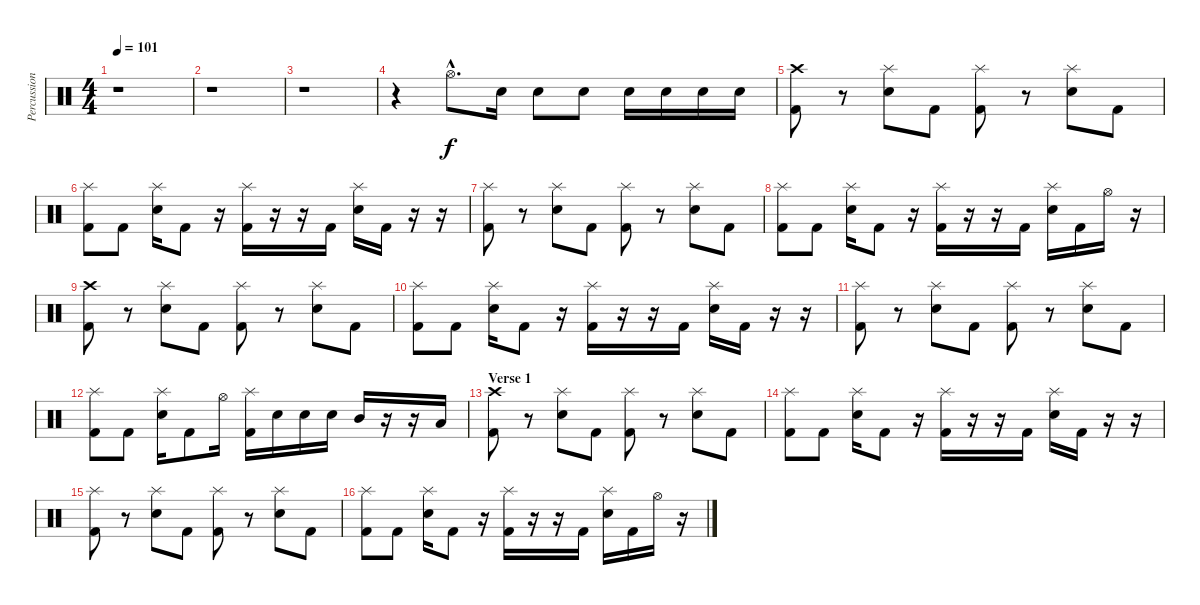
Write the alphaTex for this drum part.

\track ("Percussion" "Percussion") {instrument percussion}
\staff {score}
\articulation defaults
\ts (4 4)
\tempo 101
\clef neutral
\ks c
r.1{dy f} |
r.1 |
r.1 |
r.4 "Hi-Hat (open)"{hac}.8{d} "Electric Snare (hit)".16 "Electric Snare (hit)".8 "Electric Snare (hit)".8 "Electric Snare (hit)".16 "Electric Snare (hit)".16 "Electric Snare (hit)".16 "Electric Snare (hit)".16 |
("Crash high (hit)" "Kick (hit) 2").8 r.8 ("Splash (hit)" "Electric Snare (hit)").8 "Kick (hit) 2".8 ("Splash (hit)" "Kick (hit) 2").8 r.8 ("Splash (hit)" "Electric Snare (hit)").8 "Kick (hit) 2".8 |
("Splash (hit)" "Kick (hit) 2").8 "Kick (hit) 2".8 ("Splash (hit)" "Electric Snare (hit)").16 "Kick (hit) 2".8 r.16 ("Splash (hit)" "Kick (hit) 2").16 r.16 r.16 "Kick (hit) 2".16 ("Splash (hit)" "Electric Snare (hit)").16 "Kick (hit) 2".16 r.16 r.16 |
("Splash (hit)" "Kick (hit) 2").8 r.8 ("Splash (hit)" "Electric Snare (hit)").8 "Kick (hit) 2".8 ("Splash (hit)" "Kick (hit) 2").8 r.8 ("Splash (hit)" "Electric Snare (hit)").8 "Kick (hit) 2".8 |
("Splash (hit)" "Kick (hit) 2").8 "Kick (hit) 2".8 ("Splash (hit)" "Electric Snare (hit)").16 "Kick (hit) 2".8 r.16 ("Splash (hit)" "Kick (hit) 2").16 r.16 r.16 "Kick (hit) 2".16 ("Splash (hit)" "Electric Snare (hit)").16 "Kick (hit) 2".16 "Hi-Hat (open)".16 r.16 |
("Crash high (hit)" "Kick (hit) 2").8 r.8 ("Splash (hit)" "Electric Snare (hit)").8 "Kick (hit) 2".8 ("Splash (hit)" "Kick (hit) 2").8 r.8 ("Splash (hit)" "Electric Snare (hit)").8 "Kick (hit) 2".8 |
("Splash (hit)" "Kick (hit) 2").8 "Kick (hit) 2".8 ("Splash (hit)" "Electric Snare (hit)").16 "Kick (hit) 2".8 r.16 ("Splash (hit)" "Kick (hit) 2").16 r.16 r.16 "Kick (hit) 2".16 ("Splash (hit)" "Electric Snare (hit)").16 "Kick (hit) 2".16 r.16 r.16 |
("Splash (hit)" "Kick (hit) 2").8 r.8 ("Splash (hit)" "Electric Snare (hit)").8 "Kick (hit) 2".8 ("Splash (hit)" "Kick (hit) 2").8 r.8 ("Splash (hit)" "Electric Snare (hit)").8 "Kick (hit) 2".8 |
("Splash (hit)" "Kick (hit) 2").8 "Kick (hit) 2".8 ("Splash (hit)" "Electric Snare (hit)").16 "Kick (hit) 2".8 "Hi-Hat (open)".16 ("Splash (hit)" "Kick (hit) 2").16 "Electric Snare (hit)".16 "Electric Snare (hit)".16 "Electric Snare (hit)".16 "Mid Tom (hit)".16 r.16 r.16 "Low Tom (hit)".16 |
\section ("" "Verse 1")
("Crash high (hit)" "Kick (hit) 2").8 r.8 ("Splash (hit)" "Electric Snare (hit)").8 "Kick (hit) 2".8 ("Splash (hit)" "Kick (hit) 2").8 r.8 ("Splash (hit)" "Electric Snare (hit)").8 "Kick (hit) 2".8 |
("Splash (hit)" "Kick (hit) 2").8 "Kick (hit) 2".8 ("Splash (hit)" "Electric Snare (hit)").16 "Kick (hit) 2".8 r.16 ("Splash (hit)" "Kick (hit) 2").16 r.16 r.16 "Kick (hit) 2".16 ("Splash (hit)" "Electric Snare (hit)").16 "Kick (hit) 2".16 r.16 r.16 |
("Splash (hit)" "Kick (hit) 2").8 r.8 ("Splash (hit)" "Electric Snare (hit)").8 "Kick (hit) 2".8 ("Splash (hit)" "Kick (hit) 2").8 r.8 ("Splash (hit)" "Electric Snare (hit)").8 "Kick (hit) 2".8 |
("Splash (hit)" "Kick (hit) 2").8 "Kick (hit) 2".8 ("Splash (hit)" "Electric Snare (hit)").16 "Kick (hit) 2".8 r.16 ("Splash (hit)" "Kick (hit) 2").16 r.16 r.16 "Kick (hit) 2".16 ("Splash (hit)" "Electric Snare (hit)").16 "Kick (hit) 2".16 "Hi-Hat (open)".16 r.16
